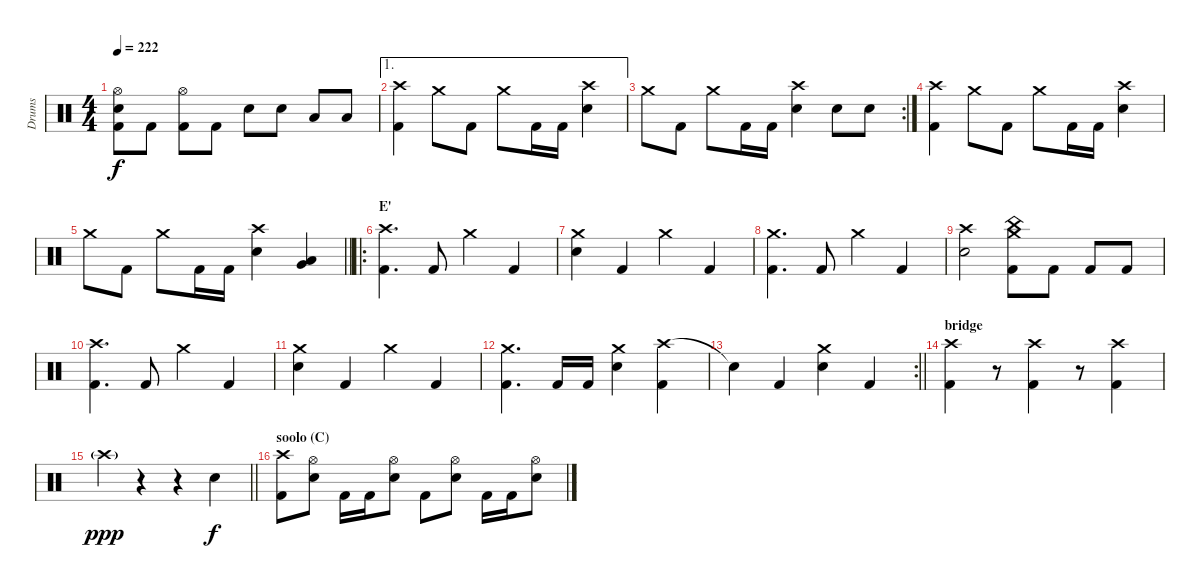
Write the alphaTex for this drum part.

\track ("Drums" "Drums") {instrument percussion}
\staff {score}
\articulation defaults
\ts (4 4)
\tempo 222
\clef neutral
\ks c
("Hi-Hat (open)" "Electric Snare (hit)" "Kick (hit) 2").8{dy f} "Kick (hit) 2".8 ("Hi-Hat (open)" "Kick (hit) 2").8 "Kick (hit) 2".8 "Electric Snare (hit)".8 "Electric Snare (hit)".8 "Low Tom (hit)".8 "Low Tom (hit)".8 |
\ae 1
("Crash high (hit)" "Kick (hit) 2").4 "Crash medium (hit)".8 "Kick (hit) 2".8 "Crash medium (hit)".8 "Kick (hit) 2".16 "Kick (hit) 2".16 ("Crash high (hit)" "Electric Snare (hit)").4 |
\rc 2 "Crash medium (hit)".8 "Kick (hit) 2".8 "Crash medium (hit)".8 "Kick (hit) 2".16 "Kick (hit) 2".16
("Crash high (hit)" "Electric Snare (hit)").4 "Electric Snare (hit)".8 "Electric Snare (hit)".8 |
("Crash high (hit)" "Kick (hit) 2").4 "Crash medium (hit)".8 "Kick (hit) 2".8 "Crash medium (hit)".8 "Kick (hit) 2".16 "Kick (hit) 2".16 ("Crash high (hit)" "Electric Snare (hit)").4 |
\barLineRight lightlight "Crash medium (hit)".8 "Kick (hit) 2".8 "Crash medium (hit)".8 "Kick (hit) 2".16 "Kick (hit) 2".16
("Crash high (hit)" "Electric Snare (hit)").4 ("Low Tom (hit)" "Very Low Tom (hit)").4 |
\ro
\section ("" "E'")
("Crash high (hit)" "Kick (hit) 2").4{d} "Kick (hit) 2".8 "Crash medium (hit)".4 "Kick (hit) 2".4 |
("Crash medium (hit)" "Electric Snare (hit)").4 "Kick (hit) 2".4 "Crash medium (hit)".4 "Kick (hit) 2".4 |
("Crash medium (hit)" "Kick (hit) 2").4{d} "Kick (hit) 2".8 "Crash medium (hit)".4 "Kick (hit) 2".4 |
("Crash high (hit)" "Electric Snare (hit)").2 ("Crash medium (hit)" "China (hit)" "Kick (hit) 2").8 "Kick (hit) 2".8 "Kick (hit) 2".8 "Kick (hit) 2".8 |
("Crash high (hit)" "Kick (hit) 2").4{d} "Kick (hit) 2".8 "Crash medium (hit)".4 "Kick (hit) 2".4 |
("Crash medium (hit)" "Electric Snare (hit)").4 "Kick (hit) 2".4 "Crash medium (hit)".4 "Kick (hit) 2".4 |
("Crash medium (hit)" "Kick (hit) 2").4{d} "Kick (hit) 2".16 "Kick (hit) 2".16 ("Crash medium (hit)" "Electric Snare (hit)").4 ("Crash high (hit)" "Kick (hit) 2").4 |
\rc 2
\barLineRight lightlight "Snare (hit)"{t}.4 "Kick (hit) 2".4
("Crash medium (hit)" "Electric Snare (hit)").4 "Kick (hit) 2".4 |
\section ("" "bridge")
("Crash high (hit)" "Kick (hit) 2").4 r.8{volume 0} ("Crash high (hit)" "Kick (hit) 2").4{volume 15} r.8{volume 0} ("Crash high (hit)" "Kick (hit) 2").4{volume 15} |
\barLineRight lightlight "Crash high (hit)"{g}.4{dy ppp volume 0}
r.4 r.4 "Electric Snare (hit)".4{dy f volume 15} |
\section ("" "soolo (C)")
("Crash high (hit)" "Kick (hit) 2").8{volume 15} ("Hi-Hat (open)" "Electric Snare (hit)").8 "Kick (hit) 2".16 "Kick (hit) 2".16 ("Hi-Hat (open)" "Electric Snare (hit)").8 "Kick (hit) 2".8 ("Hi-Hat (open)" "Electric Snare (hit)").8 "Kick (hit) 2".16 "Kick (hit) 2".16 ("Hi-Hat (open)" "Electric Snare (hit)").8
